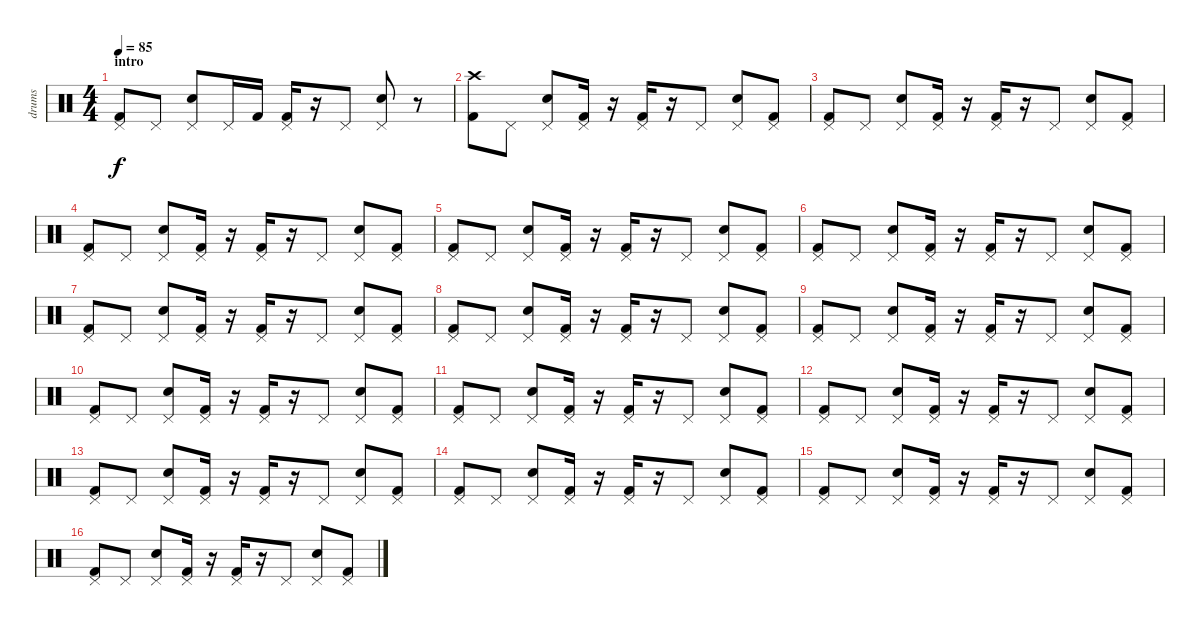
\track ("drums" "drums") {instrument percussion}
\staff {score}
\articulation defaults
\ts (4 4)
\section ("" "intro")
\tempo 85
\clef neutral
\ks c
("Kick (hit) 2" "Pedal Hi-Hat (hit)").8{dy f} "Pedal Hi-Hat (hit)".8 ("Electric Snare (hit)" "Pedal Hi-Hat (hit)").8 "Pedal Hi-Hat (hit)".16 "Kick (hit) 2".16 ("Kick (hit) 2" "Pedal Hi-Hat (hit)").16 r.16 "Pedal Hi-Hat (hit)".8 ("Electric Snare (hit)" "Pedal Hi-Hat (hit)").8 r.8 |
("Kick (hit) 2" "Crash high (hit)").8 "Pedal Hi-Hat (hit)".8 ("Electric Snare (hit)" "Pedal Hi-Hat (hit)").8 ("Kick (hit) 2" "Pedal Hi-Hat (hit)").16 r.16 ("Kick (hit) 2" "Pedal Hi-Hat (hit)").16 r.16 "Pedal Hi-Hat (hit)".8 ("Electric Snare (hit)" "Pedal Hi-Hat (hit)").8 ("Kick (hit) 2" "Pedal Hi-Hat (hit)").8 |
("Kick (hit) 2" "Pedal Hi-Hat (hit)").8 "Pedal Hi-Hat (hit)".8 ("Electric Snare (hit)" "Pedal Hi-Hat (hit)").8 ("Kick (hit) 2" "Pedal Hi-Hat (hit)").16 r.16 ("Kick (hit) 2" "Pedal Hi-Hat (hit)").16 r.16 "Pedal Hi-Hat (hit)".8 ("Electric Snare (hit)" "Pedal Hi-Hat (hit)").8 ("Kick (hit) 2" "Pedal Hi-Hat (hit)").8 |
("Kick (hit) 2" "Pedal Hi-Hat (hit)").8 "Pedal Hi-Hat (hit)".8 ("Electric Snare (hit)" "Pedal Hi-Hat (hit)").8 ("Kick (hit) 2" "Pedal Hi-Hat (hit)").16 r.16 ("Kick (hit) 2" "Pedal Hi-Hat (hit)").16 r.16 "Pedal Hi-Hat (hit)".8 ("Electric Snare (hit)" "Pedal Hi-Hat (hit)").8 ("Kick (hit) 2" "Pedal Hi-Hat (hit)").8 |
("Kick (hit) 2" "Pedal Hi-Hat (hit)").8 "Pedal Hi-Hat (hit)".8 ("Electric Snare (hit)" "Pedal Hi-Hat (hit)").8 ("Kick (hit) 2" "Pedal Hi-Hat (hit)").16 r.16 ("Kick (hit) 2" "Pedal Hi-Hat (hit)").16 r.16 "Pedal Hi-Hat (hit)".8 ("Electric Snare (hit)" "Pedal Hi-Hat (hit)").8 ("Kick (hit) 2" "Pedal Hi-Hat (hit)").8 |
("Kick (hit) 2" "Pedal Hi-Hat (hit)").8 "Pedal Hi-Hat (hit)".8 ("Electric Snare (hit)" "Pedal Hi-Hat (hit)").8 ("Kick (hit) 2" "Pedal Hi-Hat (hit)").16 r.16 ("Kick (hit) 2" "Pedal Hi-Hat (hit)").16 r.16 "Pedal Hi-Hat (hit)".8 ("Electric Snare (hit)" "Pedal Hi-Hat (hit)").8 ("Kick (hit) 2" "Pedal Hi-Hat (hit)").8 |
("Kick (hit) 2" "Pedal Hi-Hat (hit)").8 "Pedal Hi-Hat (hit)".8 ("Electric Snare (hit)" "Pedal Hi-Hat (hit)").8 ("Kick (hit) 2" "Pedal Hi-Hat (hit)").16 r.16 ("Kick (hit) 2" "Pedal Hi-Hat (hit)").16 r.16 "Pedal Hi-Hat (hit)".8 ("Electric Snare (hit)" "Pedal Hi-Hat (hit)").8 ("Kick (hit) 2" "Pedal Hi-Hat (hit)").8 |
("Kick (hit) 2" "Pedal Hi-Hat (hit)").8 "Pedal Hi-Hat (hit)".8 ("Electric Snare (hit)" "Pedal Hi-Hat (hit)").8 ("Kick (hit) 2" "Pedal Hi-Hat (hit)").16 r.16 ("Kick (hit) 2" "Pedal Hi-Hat (hit)").16 r.16 "Pedal Hi-Hat (hit)".8 ("Electric Snare (hit)" "Pedal Hi-Hat (hit)").8 ("Kick (hit) 2" "Pedal Hi-Hat (hit)").8 |
("Kick (hit) 2" "Pedal Hi-Hat (hit)").8 "Pedal Hi-Hat (hit)".8 ("Electric Snare (hit)" "Pedal Hi-Hat (hit)").8 ("Kick (hit) 2" "Pedal Hi-Hat (hit)").16 r.16 ("Kick (hit) 2" "Pedal Hi-Hat (hit)").16 r.16 "Pedal Hi-Hat (hit)".8 ("Electric Snare (hit)" "Pedal Hi-Hat (hit)").8 ("Kick (hit) 2" "Pedal Hi-Hat (hit)").8 |
("Kick (hit) 2" "Pedal Hi-Hat (hit)").8 "Pedal Hi-Hat (hit)".8 ("Electric Snare (hit)" "Pedal Hi-Hat (hit)").8 ("Kick (hit) 2" "Pedal Hi-Hat (hit)").16 r.16 ("Kick (hit) 2" "Pedal Hi-Hat (hit)").16 r.16 "Pedal Hi-Hat (hit)".8 ("Electric Snare (hit)" "Pedal Hi-Hat (hit)").8 ("Kick (hit) 2" "Pedal Hi-Hat (hit)").8 |
("Kick (hit) 2" "Pedal Hi-Hat (hit)").8 "Pedal Hi-Hat (hit)".8 ("Electric Snare (hit)" "Pedal Hi-Hat (hit)").8 ("Kick (hit) 2" "Pedal Hi-Hat (hit)").16 r.16 ("Kick (hit) 2" "Pedal Hi-Hat (hit)").16 r.16 "Pedal Hi-Hat (hit)".8 ("Electric Snare (hit)" "Pedal Hi-Hat (hit)").8 ("Kick (hit) 2" "Pedal Hi-Hat (hit)").8 |
("Kick (hit) 2" "Pedal Hi-Hat (hit)").8 "Pedal Hi-Hat (hit)".8 ("Electric Snare (hit)" "Pedal Hi-Hat (hit)").8 ("Kick (hit) 2" "Pedal Hi-Hat (hit)").16 r.16 ("Kick (hit) 2" "Pedal Hi-Hat (hit)").16 r.16 "Pedal Hi-Hat (hit)".8 ("Electric Snare (hit)" "Pedal Hi-Hat (hit)").8 ("Kick (hit) 2" "Pedal Hi-Hat (hit)").8 |
("Kick (hit) 2" "Pedal Hi-Hat (hit)").8 "Pedal Hi-Hat (hit)".8 ("Electric Snare (hit)" "Pedal Hi-Hat (hit)").8 ("Kick (hit) 2" "Pedal Hi-Hat (hit)").16 r.16 ("Kick (hit) 2" "Pedal Hi-Hat (hit)").16 r.16 "Pedal Hi-Hat (hit)".8 ("Electric Snare (hit)" "Pedal Hi-Hat (hit)").8 ("Kick (hit) 2" "Pedal Hi-Hat (hit)").8 |
("Kick (hit) 2" "Pedal Hi-Hat (hit)").8 "Pedal Hi-Hat (hit)".8 ("Electric Snare (hit)" "Pedal Hi-Hat (hit)").8 ("Kick (hit) 2" "Pedal Hi-Hat (hit)").16 r.16 ("Kick (hit) 2" "Pedal Hi-Hat (hit)").16 r.16 "Pedal Hi-Hat (hit)".8 ("Electric Snare (hit)" "Pedal Hi-Hat (hit)").8 ("Kick (hit) 2" "Pedal Hi-Hat (hit)").8 |
("Kick (hit) 2" "Pedal Hi-Hat (hit)").8 "Pedal Hi-Hat (hit)".8 ("Electric Snare (hit)" "Pedal Hi-Hat (hit)").8 ("Kick (hit) 2" "Pedal Hi-Hat (hit)").16 r.16 ("Kick (hit) 2" "Pedal Hi-Hat (hit)").16 r.16 "Pedal Hi-Hat (hit)".8 ("Electric Snare (hit)" "Pedal Hi-Hat (hit)").8 ("Kick (hit) 2" "Pedal Hi-Hat (hit)").8 |
("Kick (hit) 2" "Pedal Hi-Hat (hit)").8 "Pedal Hi-Hat (hit)".8 ("Electric Snare (hit)" "Pedal Hi-Hat (hit)").8 ("Kick (hit) 2" "Pedal Hi-Hat (hit)").16 r.16 ("Kick (hit) 2" "Pedal Hi-Hat (hit)").16 r.16 "Pedal Hi-Hat (hit)".8 ("Electric Snare (hit)" "Pedal Hi-Hat (hit)").8 ("Kick (hit) 2" "Pedal Hi-Hat (hit)").8
